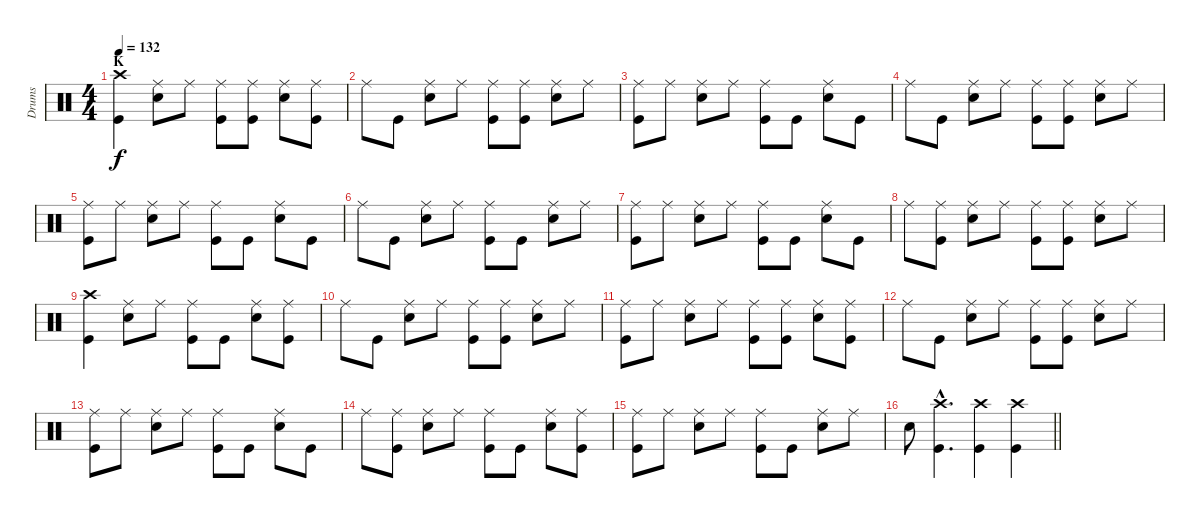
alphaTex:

\track ("Drums" "Drums") {instrument percussion}
\staff {score}
\articulation defaults
\ts (4 4)
\section ("" "K")
\tempo 132
\clef neutral
\ks c
("Crash high (hit)" "Kick (hit)").4{dy f} ("Ride (middle)" "Electric Snare (hit)").8 "Ride (middle)".8 ("Ride (middle)" "Kick (hit)").8 ("Ride (middle)" "Kick (hit)").8 ("Ride (middle)" "Electric Snare (hit)").8 ("Ride (middle)" "Kick (hit)").8 |
"Ride (middle)".8 "Kick (hit)".8 ("Ride (middle)" "Electric Snare (hit)").8 "Ride (middle)".8 ("Ride (middle)" "Kick (hit)").8 ("Ride (middle)" "Kick (hit)").8 ("Ride (middle)" "Electric Snare (hit)").8 "Ride (middle)".8 |
("Ride (middle)" "Kick (hit)").8 "Ride (middle)".8 ("Ride (middle)" "Electric Snare (hit)").8 "Ride (middle)".8 ("Ride (middle)" "Kick (hit)").8 "Kick (hit)".8 ("Ride (middle)" "Electric Snare (hit)").8 "Kick (hit)".8 |
"Ride (middle)".8 "Kick (hit)".8 ("Ride (middle)" "Electric Snare (hit)").8 "Ride (middle)".8 ("Ride (middle)" "Kick (hit)").8 ("Ride (middle)" "Kick (hit)").8 ("Ride (middle)" "Electric Snare (hit)").8 "Ride (middle)".8 |
("Ride (middle)" "Kick (hit)").8 "Ride (middle)".8 ("Ride (middle)" "Electric Snare (hit)").8 "Ride (middle)".8 ("Ride (middle)" "Kick (hit)").8 "Kick (hit)".8 ("Ride (middle)" "Electric Snare (hit)").8 "Kick (hit)".8 |
"Ride (middle)".8 "Kick (hit)".8 ("Ride (middle)" "Electric Snare (hit)").8 "Ride (middle)".8 ("Ride (middle)" "Kick (hit)").8 "Kick (hit)".8 ("Ride (middle)" "Electric Snare (hit)").8 "Ride (middle)".8 |
("Ride (middle)" "Kick (hit)").8 "Ride (middle)".8 ("Ride (middle)" "Electric Snare (hit)").8 "Ride (middle)".8 ("Ride (middle)" "Kick (hit)").8 "Kick (hit)".8 ("Ride (middle)" "Electric Snare (hit)").8 "Kick (hit)".8 |
"Ride (middle)".8 ("Ride (middle)" "Kick (hit)").8 ("Ride (middle)" "Electric Snare (hit)").8 "Ride (middle)".8 ("Ride (middle)" "Kick (hit)").8 ("Ride (middle)" "Kick (hit)").8 ("Ride (middle)" "Electric Snare (hit)").8 "Ride (middle)".8 |
("Crash high (hit)" "Kick (hit)").4 ("Ride (middle)" "Electric Snare (hit)").8 "Ride (middle)".8 ("Ride (middle)" "Kick (hit)").8 "Kick (hit)".8 ("Ride (middle)" "Electric Snare (hit)").8 ("Ride (middle)" "Kick (hit)").8 |
"Ride (middle)".8 "Kick (hit)".8 ("Ride (middle)" "Electric Snare (hit)").8 "Ride (middle)".8 ("Ride (middle)" "Kick (hit)").8 ("Ride (middle)" "Kick (hit)").8 ("Ride (middle)" "Electric Snare (hit)").8 "Ride (middle)".8 |
("Ride (middle)" "Kick (hit)").8 "Ride (middle)".8 ("Ride (middle)" "Electric Snare (hit)").8 "Ride (middle)".8 ("Ride (middle)" "Kick (hit)").8 ("Ride (middle)" "Kick (hit)").8 ("Ride (middle)" "Electric Snare (hit)").8 ("Ride (middle)" "Kick (hit)").8 |
"Ride (middle)".8 "Kick (hit)".8 ("Ride (middle)" "Electric Snare (hit)").8 "Ride (middle)".8 ("Ride (middle)" "Kick (hit)").8 ("Ride (middle)" "Kick (hit)").8 ("Ride (middle)" "Electric Snare (hit)").8 "Ride (middle)".8 |
("Ride (middle)" "Kick (hit)").8 "Ride (middle)".8 ("Ride (middle)" "Electric Snare (hit)").8 "Ride (middle)".8 ("Ride (middle)" "Kick (hit)").8 "Kick (hit)".8 ("Ride (middle)" "Electric Snare (hit)").8 "Kick (hit)".8 |
"Ride (middle)".8 ("Ride (middle)" "Kick (hit)").8 ("Ride (middle)" "Electric Snare (hit)").8 "Ride (middle)".8 ("Ride (middle)" "Kick (hit)").8 "Kick (hit)".8 ("Ride (middle)" "Electric Snare (hit)").8 ("Ride (middle)" "Kick (hit)").8 |
("Ride (middle)" "Kick (hit)").8 "Ride (middle)".8 ("Ride (middle)" "Electric Snare (hit)").8 "Ride (middle)".8 ("Ride (middle)" "Kick (hit)").8 "Kick (hit)".8 ("Ride (middle)" "Electric Snare (hit)").8 "Ride (middle)".8 |
\barLineRight lightlight "Electric Snare (hit)".8
("Crash high (hit)"{hac} "Kick (hit)"{hac}).4{d} ("Crash high (hit)" "Kick (hit)").4 ("Crash high (hit)" "Kick (hit)").4
